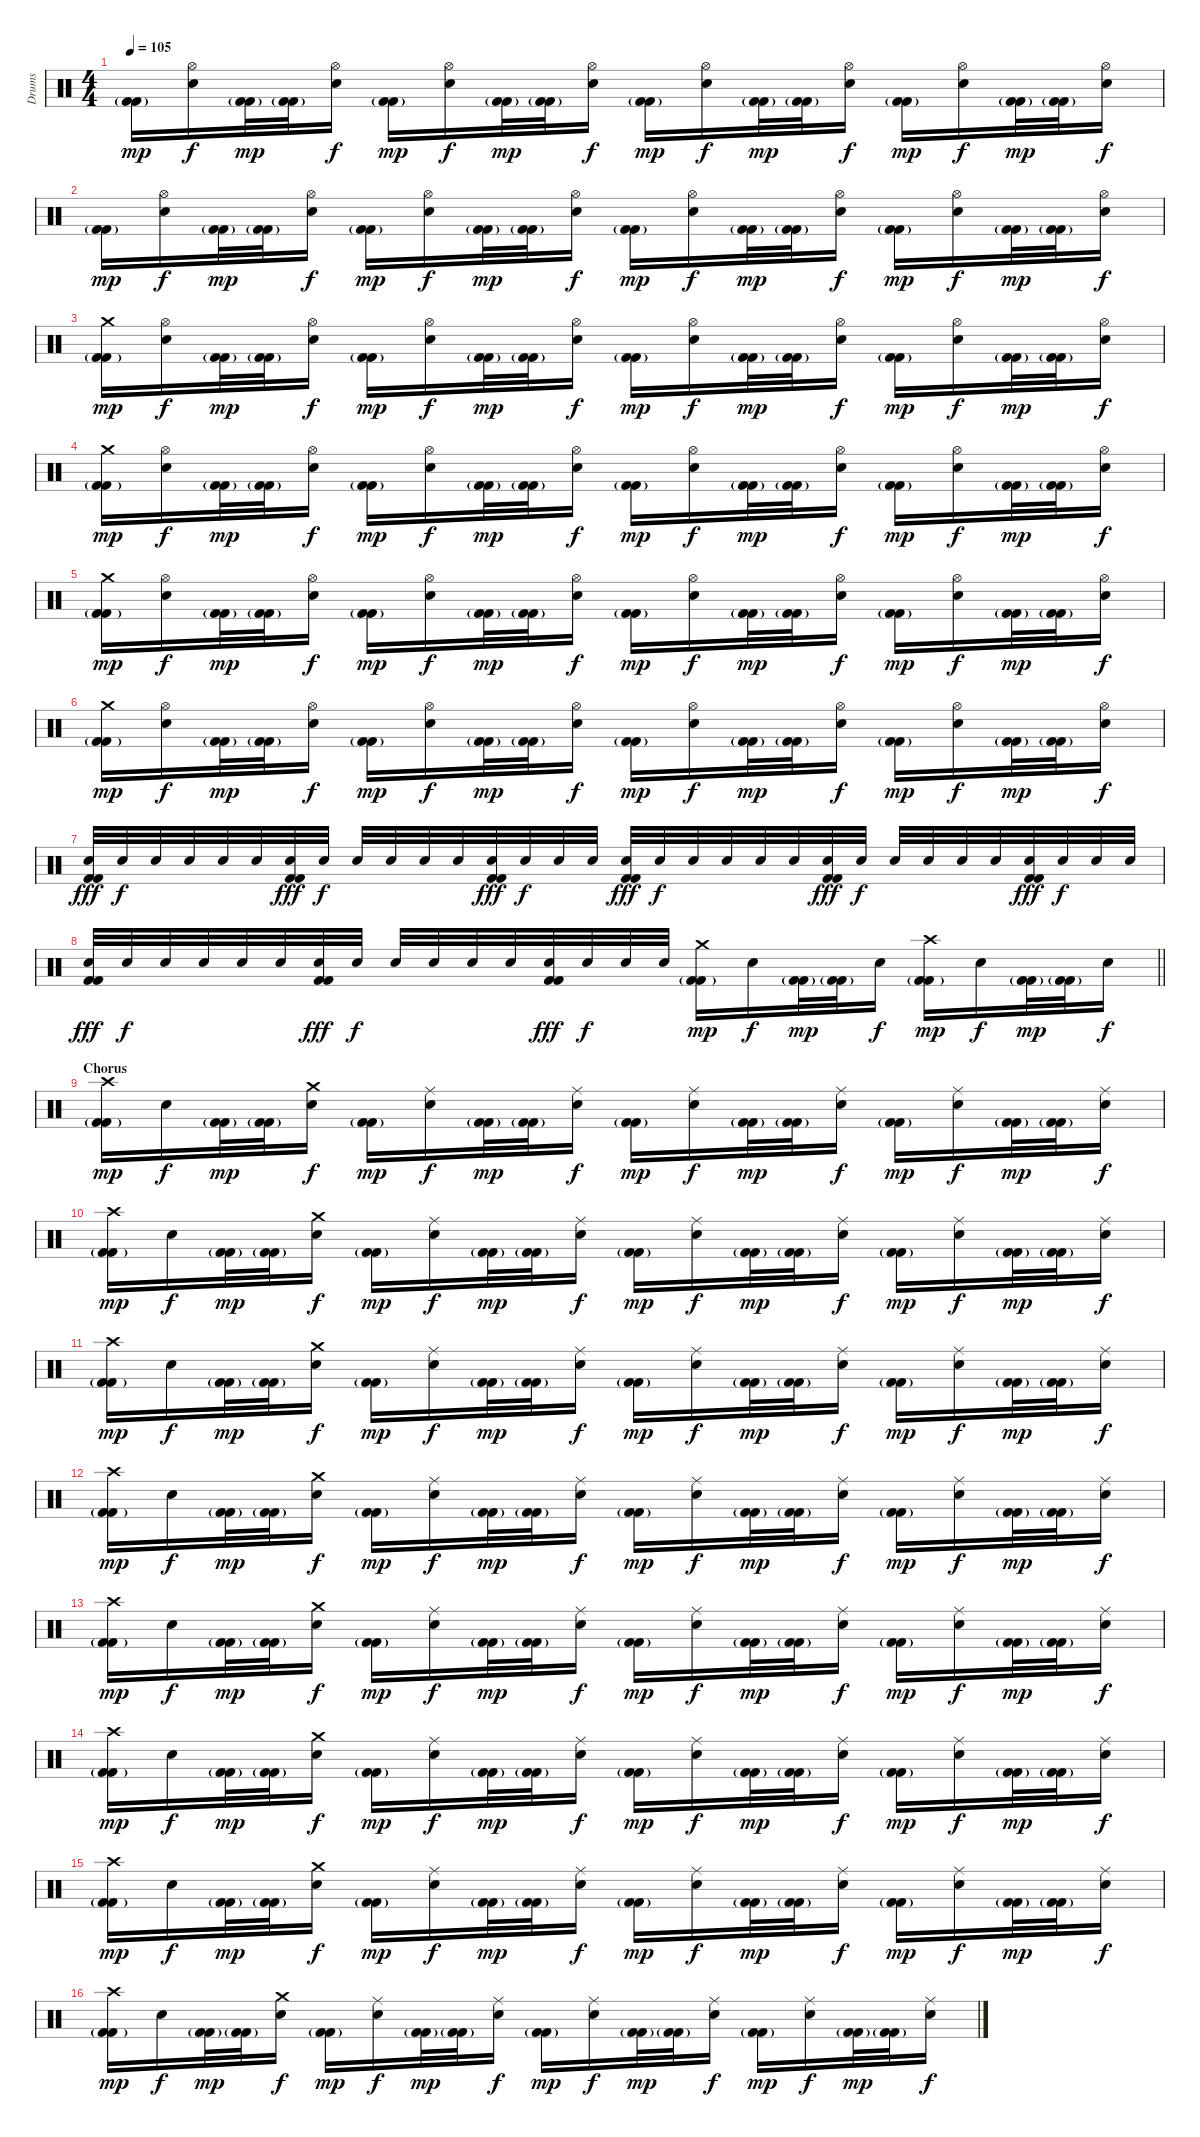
\track ("Drums" "Drums") {instrument percussion}
\staff {score}
\articulation defaults
\ts (4 4)
\tempo 105
\clef neutral
\ks c
("Kick (hit) 2"{g} "Kick (hit) 2").16{dy mp} ("Hi-Hat (open)" "Electric Snare (hit)").16{dy f} ("Kick (hit) 2"{g} "Kick (hit) 2").32{dy mp} ("Kick (hit) 2"{g} "Kick (hit) 2").32 ("Hi-Hat (open)" "Electric Snare (hit)").16{dy f} ("Kick (hit) 2"{g} "Kick (hit) 2").16{dy mp} ("Hi-Hat (open)" "Electric Snare (hit)").16{dy f} ("Kick (hit) 2"{g} "Kick (hit) 2").32{dy mp} ("Kick (hit) 2"{g} "Kick (hit) 2").32 ("Hi-Hat (open)" "Electric Snare (hit)").16{dy f} ("Kick (hit) 2"{g} "Kick (hit) 2").16{dy mp} ("Hi-Hat (open)" "Electric Snare (hit)").16{dy f} ("Kick (hit) 2"{g} "Kick (hit) 2").32{dy mp} ("Kick (hit) 2"{g} "Kick (hit) 2").32 ("Hi-Hat (open)" "Electric Snare (hit)").16{dy f} ("Kick (hit) 2"{g} "Kick (hit) 2").16{dy mp} ("Hi-Hat (open)" "Electric Snare (hit)").16{dy f} ("Kick (hit) 2"{g} "Kick (hit) 2").32{dy mp} ("Kick (hit) 2"{g} "Kick (hit) 2").32 ("Hi-Hat (open)" "Electric Snare (hit)").16{dy f} |
("Kick (hit) 2"{g} "Kick (hit) 2").16{dy mp} ("Hi-Hat (open)" "Electric Snare (hit)").16{dy f} ("Kick (hit) 2"{g} "Kick (hit) 2").32{dy mp} ("Kick (hit) 2"{g} "Kick (hit) 2").32 ("Hi-Hat (open)" "Electric Snare (hit)").16{dy f} ("Kick (hit) 2"{g} "Kick (hit) 2").16{dy mp} ("Hi-Hat (open)" "Electric Snare (hit)").16{dy f} ("Kick (hit) 2"{g} "Kick (hit) 2").32{dy mp} ("Kick (hit) 2"{g} "Kick (hit) 2").32 ("Hi-Hat (open)" "Electric Snare (hit)").16{dy f} ("Kick (hit) 2"{g} "Kick (hit) 2").16{dy mp} ("Hi-Hat (open)" "Electric Snare (hit)").16{dy f} ("Kick (hit) 2"{g} "Kick (hit) 2").32{dy mp} ("Kick (hit) 2"{g} "Kick (hit) 2").32 ("Hi-Hat (open)" "Electric Snare (hit)").16{dy f} ("Kick (hit) 2"{g} "Kick (hit) 2").16{dy mp} ("Hi-Hat (open)" "Electric Snare (hit)").16{dy f} ("Kick (hit) 2"{g} "Kick (hit) 2").32{dy mp} ("Kick (hit) 2"{g} "Kick (hit) 2").32 ("Hi-Hat (open)" "Electric Snare (hit)").16{dy f} |
("Crash medium (hit)" "Kick (hit) 2"{g} "Kick (hit) 2").16{dy mp} ("Hi-Hat (open)" "Electric Snare (hit)").16{dy f} ("Kick (hit) 2"{g} "Kick (hit) 2").32{dy mp} ("Kick (hit) 2"{g} "Kick (hit) 2").32 ("Hi-Hat (open)" "Electric Snare (hit)").16{dy f} ("Kick (hit) 2"{g} "Kick (hit) 2").16{dy mp} ("Hi-Hat (open)" "Electric Snare (hit)").16{dy f} ("Kick (hit) 2"{g} "Kick (hit) 2").32{dy mp} ("Kick (hit) 2"{g} "Kick (hit) 2").32 ("Hi-Hat (open)" "Electric Snare (hit)").16{dy f} ("Kick (hit) 2"{g} "Kick (hit) 2").16{dy mp} ("Hi-Hat (open)" "Electric Snare (hit)").16{dy f} ("Kick (hit) 2"{g} "Kick (hit) 2").32{dy mp} ("Kick (hit) 2"{g} "Kick (hit) 2").32 ("Hi-Hat (open)" "Electric Snare (hit)").16{dy f} ("Kick (hit) 2"{g} "Kick (hit) 2").16{dy mp} ("Hi-Hat (open)" "Electric Snare (hit)").16{dy f} ("Kick (hit) 2"{g} "Kick (hit) 2").32{dy mp} ("Kick (hit) 2"{g} "Kick (hit) 2").32 ("Hi-Hat (open)" "Electric Snare (hit)").16{dy f} |
("Crash medium (hit)" "Kick (hit) 2"{g} "Kick (hit) 2").16{dy mp} ("Hi-Hat (open)" "Electric Snare (hit)").16{dy f} ("Kick (hit) 2"{g} "Kick (hit) 2").32{dy mp} ("Kick (hit) 2"{g} "Kick (hit) 2").32 ("Hi-Hat (open)" "Electric Snare (hit)").16{dy f} ("Kick (hit) 2"{g} "Kick (hit) 2").16{dy mp} ("Hi-Hat (open)" "Electric Snare (hit)").16{dy f} ("Kick (hit) 2"{g} "Kick (hit) 2").32{dy mp} ("Kick (hit) 2"{g} "Kick (hit) 2").32 ("Hi-Hat (open)" "Electric Snare (hit)").16{dy f} ("Kick (hit) 2"{g} "Kick (hit) 2").16{dy mp} ("Hi-Hat (open)" "Electric Snare (hit)").16{dy f} ("Kick (hit) 2"{g} "Kick (hit) 2").32{dy mp} ("Kick (hit) 2"{g} "Kick (hit) 2").32 ("Hi-Hat (open)" "Electric Snare (hit)").16{dy f} ("Kick (hit) 2"{g} "Kick (hit) 2").16{dy mp} ("Hi-Hat (open)" "Electric Snare (hit)").16{dy f} ("Kick (hit) 2"{g} "Kick (hit) 2").32{dy mp} ("Kick (hit) 2"{g} "Kick (hit) 2").32 ("Hi-Hat (open)" "Electric Snare (hit)").16{dy f} |
("Crash medium (hit)" "Kick (hit) 2"{g} "Kick (hit) 2").16{dy mp} ("Hi-Hat (open)" "Electric Snare (hit)").16{dy f} ("Kick (hit) 2"{g} "Kick (hit) 2").32{dy mp} ("Kick (hit) 2"{g} "Kick (hit) 2").32 ("Hi-Hat (open)" "Electric Snare (hit)").16{dy f} ("Kick (hit) 2"{g} "Kick (hit) 2").16{dy mp} ("Hi-Hat (open)" "Electric Snare (hit)").16{dy f} ("Kick (hit) 2"{g} "Kick (hit) 2").32{dy mp} ("Kick (hit) 2"{g} "Kick (hit) 2").32 ("Hi-Hat (open)" "Electric Snare (hit)").16{dy f} ("Kick (hit) 2"{g} "Kick (hit) 2").16{dy mp} ("Hi-Hat (open)" "Electric Snare (hit)").16{dy f} ("Kick (hit) 2"{g} "Kick (hit) 2").32{dy mp} ("Kick (hit) 2"{g} "Kick (hit) 2").32 ("Hi-Hat (open)" "Electric Snare (hit)").16{dy f} ("Kick (hit) 2"{g} "Kick (hit) 2").16{dy mp} ("Hi-Hat (open)" "Electric Snare (hit)").16{dy f} ("Kick (hit) 2"{g} "Kick (hit) 2").32{dy mp} ("Kick (hit) 2"{g} "Kick (hit) 2").32 ("Hi-Hat (open)" "Electric Snare (hit)").16{dy f} |
("Crash medium (hit)" "Kick (hit) 2"{g} "Kick (hit) 2").16{dy mp} ("Hi-Hat (open)" "Electric Snare (hit)").16{dy f} ("Kick (hit) 2"{g} "Kick (hit) 2").32{dy mp} ("Kick (hit) 2"{g} "Kick (hit) 2").32 ("Hi-Hat (open)" "Electric Snare (hit)").16{dy f} ("Kick (hit) 2"{g} "Kick (hit) 2").16{dy mp} ("Hi-Hat (open)" "Electric Snare (hit)").16{dy f} ("Kick (hit) 2"{g} "Kick (hit) 2").32{dy mp} ("Kick (hit) 2"{g} "Kick (hit) 2").32 ("Hi-Hat (open)" "Electric Snare (hit)").16{dy f} ("Kick (hit) 2"{g} "Kick (hit) 2").16{dy mp} ("Hi-Hat (open)" "Electric Snare (hit)").16{dy f} ("Kick (hit) 2"{g} "Kick (hit) 2").32{dy mp} ("Kick (hit) 2"{g} "Kick (hit) 2").32 ("Hi-Hat (open)" "Electric Snare (hit)").16{dy f} ("Kick (hit) 2"{g} "Kick (hit) 2").16{dy mp} ("Hi-Hat (open)" "Electric Snare (hit)").16{dy f} ("Kick (hit) 2"{g} "Kick (hit) 2").32{dy mp} ("Kick (hit) 2"{g} "Kick (hit) 2").32 ("Hi-Hat (open)" "Electric Snare (hit)").16{dy f} |
("Electric Snare (hit)" "Kick (hit) 2" "Kick (hit) 2").32{dy fff} "Electric Snare (hit)".32{dy f} "Electric Snare (hit)".32 "Electric Snare (hit)".32 "Electric Snare (hit)".32 "Electric Snare (hit)".32 ("Electric Snare (hit)" "Kick (hit) 2" "Kick (hit) 2").32{dy fff} "Electric Snare (hit)".32{dy f} "Electric Snare (hit)".32 "Electric Snare (hit)".32 "Electric Snare (hit)".32 "Electric Snare (hit)".32 ("Electric Snare (hit)" "Kick (hit) 2" "Kick (hit) 2").32{dy fff} "Electric Snare (hit)".32{dy f} "Electric Snare (hit)".32 "Electric Snare (hit)".32 ("Electric Snare (hit)" "Kick (hit) 2" "Kick (hit) 2").32{dy fff} "Electric Snare (hit)".32{dy f} "Electric Snare (hit)".32 "Electric Snare (hit)".32 "Electric Snare (hit)".32 "Electric Snare (hit)".32 ("Electric Snare (hit)" "Kick (hit) 2" "Kick (hit) 2").32{dy fff} "Electric Snare (hit)".32{dy f} "Electric Snare (hit)".32 "Electric Snare (hit)".32 "Electric Snare (hit)".32 "Electric Snare (hit)".32 ("Electric Snare (hit)" "Kick (hit) 2" "Kick (hit) 2").32{dy fff} "Electric Snare (hit)".32{dy f} "Electric Snare (hit)".32 "Electric Snare (hit)".32 |
\barLineRight lightlight
("Electric Snare (hit)" "Kick (hit) 2" "Kick (hit) 2").32{dy fff} "Electric Snare (hit)".32{dy f} "Electric Snare (hit)".32 "Electric Snare (hit)".32 "Electric Snare (hit)".32 "Electric Snare (hit)".32 ("Electric Snare (hit)" "Kick (hit) 2" "Kick (hit) 2").32{dy fff} "Electric Snare (hit)".32{dy f} "Electric Snare (hit)".32 "Electric Snare (hit)".32 "Electric Snare (hit)".32 "Electric Snare (hit)".32 ("Electric Snare (hit)" "Kick (hit) 2" "Kick (hit) 2").32{dy fff} "Electric Snare (hit)".32{dy f} "Electric Snare (hit)".32 "Electric Snare (hit)".32 ("Crash medium (hit)" "Kick (hit) 2"{g} "Kick (hit) 2").16{dy mp} "Electric Snare (hit)".16{dy f} ("Kick (hit) 2"{g} "Kick (hit) 2").32{dy mp} ("Kick (hit) 2"{g} "Kick (hit) 2").32 "Electric Snare (hit)".16{dy f} ("Crash high (hit)" "Kick (hit) 2"{g} "Kick (hit) 2").16{dy mp} "Electric Snare (hit)".16{dy f} ("Kick (hit) 2"{g} "Kick (hit) 2").32{dy mp} ("Kick (hit) 2"{g} "Kick (hit) 2").32 "Electric Snare (hit)".16{dy f} |
\section ("" "Chorus")
("Crash high (hit)" "Kick (hit) 2"{g} "Kick (hit) 2").16{dy mp} "Electric Snare (hit)".16{dy f} ("Kick (hit) 2"{g} "Kick (hit) 2").32{dy mp} ("Kick (hit) 2"{g} "Kick (hit) 2").32 ("Crash medium (hit)" "Electric Snare (hit)").16{dy f} ("Kick (hit) 2"{g} "Kick (hit) 2").16{dy mp} ("Ride (middle)" "Electric Snare (hit)").16{dy f} ("Kick (hit) 2"{g} "Kick (hit) 2").32{dy mp} ("Kick (hit) 2"{g} "Kick (hit) 2").32 ("Ride (middle)" "Electric Snare (hit)").16{dy f} ("Kick (hit) 2"{g} "Kick (hit) 2").16{dy mp} ("Ride (middle)" "Electric Snare (hit)").16{dy f} ("Kick (hit) 2"{g} "Kick (hit) 2").32{dy mp} ("Kick (hit) 2"{g} "Kick (hit) 2").32 ("Ride (middle)" "Electric Snare (hit)").16{dy f} ("Kick (hit) 2"{g} "Kick (hit) 2").16{dy mp} ("Ride (middle)" "Electric Snare (hit)").16{dy f} ("Kick (hit) 2"{g} "Kick (hit) 2").32{dy mp} ("Kick (hit) 2"{g} "Kick (hit) 2").32 ("Ride (middle)" "Electric Snare (hit)").16{dy f} |
("Crash high (hit)" "Kick (hit) 2"{g} "Kick (hit) 2").16{dy mp} "Electric Snare (hit)".16{dy f} ("Kick (hit) 2"{g} "Kick (hit) 2").32{dy mp} ("Kick (hit) 2"{g} "Kick (hit) 2").32 ("Crash medium (hit)" "Electric Snare (hit)").16{dy f} ("Kick (hit) 2"{g} "Kick (hit) 2").16{dy mp} ("Ride (middle)" "Electric Snare (hit)").16{dy f} ("Kick (hit) 2"{g} "Kick (hit) 2").32{dy mp} ("Kick (hit) 2"{g} "Kick (hit) 2").32 ("Ride (middle)" "Electric Snare (hit)").16{dy f} ("Kick (hit) 2"{g} "Kick (hit) 2").16{dy mp} ("Ride (middle)" "Electric Snare (hit)").16{dy f} ("Kick (hit) 2"{g} "Kick (hit) 2").32{dy mp} ("Kick (hit) 2"{g} "Kick (hit) 2").32 ("Ride (middle)" "Electric Snare (hit)").16{dy f} ("Kick (hit) 2"{g} "Kick (hit) 2").16{dy mp} ("Ride (middle)" "Electric Snare (hit)").16{dy f} ("Kick (hit) 2"{g} "Kick (hit) 2").32{dy mp} ("Kick (hit) 2"{g} "Kick (hit) 2").32 ("Ride (middle)" "Electric Snare (hit)").16{dy f} |
("Crash high (hit)" "Kick (hit) 2"{g} "Kick (hit) 2").16{dy mp} "Electric Snare (hit)".16{dy f} ("Kick (hit) 2"{g} "Kick (hit) 2").32{dy mp} ("Kick (hit) 2"{g} "Kick (hit) 2").32 ("Crash medium (hit)" "Electric Snare (hit)").16{dy f} ("Kick (hit) 2"{g} "Kick (hit) 2").16{dy mp} ("Ride (middle)" "Electric Snare (hit)").16{dy f} ("Kick (hit) 2"{g} "Kick (hit) 2").32{dy mp} ("Kick (hit) 2"{g} "Kick (hit) 2").32 ("Ride (middle)" "Electric Snare (hit)").16{dy f} ("Kick (hit) 2"{g} "Kick (hit) 2").16{dy mp} ("Ride (middle)" "Electric Snare (hit)").16{dy f} ("Kick (hit) 2"{g} "Kick (hit) 2").32{dy mp} ("Kick (hit) 2"{g} "Kick (hit) 2").32 ("Ride (middle)" "Electric Snare (hit)").16{dy f} ("Kick (hit) 2"{g} "Kick (hit) 2").16{dy mp} ("Ride (middle)" "Electric Snare (hit)").16{dy f} ("Kick (hit) 2"{g} "Kick (hit) 2").32{dy mp} ("Kick (hit) 2"{g} "Kick (hit) 2").32 ("Ride (middle)" "Electric Snare (hit)").16{dy f} |
("Crash high (hit)" "Kick (hit) 2"{g} "Kick (hit) 2").16{dy mp} "Electric Snare (hit)".16{dy f} ("Kick (hit) 2"{g} "Kick (hit) 2").32{dy mp} ("Kick (hit) 2"{g} "Kick (hit) 2").32 ("Crash medium (hit)" "Electric Snare (hit)").16{dy f} ("Kick (hit) 2"{g} "Kick (hit) 2").16{dy mp} ("Ride (middle)" "Electric Snare (hit)").16{dy f} ("Kick (hit) 2"{g} "Kick (hit) 2").32{dy mp} ("Kick (hit) 2"{g} "Kick (hit) 2").32 ("Ride (middle)" "Electric Snare (hit)").16{dy f} ("Kick (hit) 2"{g} "Kick (hit) 2").16{dy mp} ("Ride (middle)" "Electric Snare (hit)").16{dy f} ("Kick (hit) 2"{g} "Kick (hit) 2").32{dy mp} ("Kick (hit) 2"{g} "Kick (hit) 2").32 ("Ride (middle)" "Electric Snare (hit)").16{dy f} ("Kick (hit) 2"{g} "Kick (hit) 2").16{dy mp} ("Ride (middle)" "Electric Snare (hit)").16{dy f} ("Kick (hit) 2"{g} "Kick (hit) 2").32{dy mp} ("Kick (hit) 2"{g} "Kick (hit) 2").32 ("Ride (middle)" "Electric Snare (hit)").16{dy f} |
("Crash high (hit)" "Kick (hit) 2"{g} "Kick (hit) 2").16{dy mp} "Electric Snare (hit)".16{dy f} ("Kick (hit) 2"{g} "Kick (hit) 2").32{dy mp} ("Kick (hit) 2"{g} "Kick (hit) 2").32 ("Crash medium (hit)" "Electric Snare (hit)").16{dy f} ("Kick (hit) 2"{g} "Kick (hit) 2").16{dy mp} ("Ride (middle)" "Electric Snare (hit)").16{dy f} ("Kick (hit) 2"{g} "Kick (hit) 2").32{dy mp} ("Kick (hit) 2"{g} "Kick (hit) 2").32 ("Ride (middle)" "Electric Snare (hit)").16{dy f} ("Kick (hit) 2"{g} "Kick (hit) 2").16{dy mp} ("Ride (middle)" "Electric Snare (hit)").16{dy f} ("Kick (hit) 2"{g} "Kick (hit) 2").32{dy mp} ("Kick (hit) 2"{g} "Kick (hit) 2").32 ("Ride (middle)" "Electric Snare (hit)").16{dy f} ("Kick (hit) 2"{g} "Kick (hit) 2").16{dy mp} ("Ride (middle)" "Electric Snare (hit)").16{dy f} ("Kick (hit) 2"{g} "Kick (hit) 2").32{dy mp} ("Kick (hit) 2"{g} "Kick (hit) 2").32 ("Ride (middle)" "Electric Snare (hit)").16{dy f} |
("Crash high (hit)" "Kick (hit) 2"{g} "Kick (hit) 2").16{dy mp} "Electric Snare (hit)".16{dy f} ("Kick (hit) 2"{g} "Kick (hit) 2").32{dy mp} ("Kick (hit) 2"{g} "Kick (hit) 2").32 ("Crash medium (hit)" "Electric Snare (hit)").16{dy f} ("Kick (hit) 2"{g} "Kick (hit) 2").16{dy mp} ("Ride (middle)" "Electric Snare (hit)").16{dy f} ("Kick (hit) 2"{g} "Kick (hit) 2").32{dy mp} ("Kick (hit) 2"{g} "Kick (hit) 2").32 ("Ride (middle)" "Electric Snare (hit)").16{dy f} ("Kick (hit) 2"{g} "Kick (hit) 2").16{dy mp} ("Ride (middle)" "Electric Snare (hit)").16{dy f} ("Kick (hit) 2"{g} "Kick (hit) 2").32{dy mp} ("Kick (hit) 2"{g} "Kick (hit) 2").32 ("Ride (middle)" "Electric Snare (hit)").16{dy f} ("Kick (hit) 2"{g} "Kick (hit) 2").16{dy mp} ("Ride (middle)" "Electric Snare (hit)").16{dy f} ("Kick (hit) 2"{g} "Kick (hit) 2").32{dy mp} ("Kick (hit) 2"{g} "Kick (hit) 2").32 ("Ride (middle)" "Electric Snare (hit)").16{dy f} |
("Crash high (hit)" "Kick (hit) 2"{g} "Kick (hit) 2").16{dy mp} "Electric Snare (hit)".16{dy f} ("Kick (hit) 2"{g} "Kick (hit) 2").32{dy mp} ("Kick (hit) 2"{g} "Kick (hit) 2").32 ("Crash medium (hit)" "Electric Snare (hit)").16{dy f} ("Kick (hit) 2"{g} "Kick (hit) 2").16{dy mp} ("Ride (middle)" "Electric Snare (hit)").16{dy f} ("Kick (hit) 2"{g} "Kick (hit) 2").32{dy mp} ("Kick (hit) 2"{g} "Kick (hit) 2").32 ("Ride (middle)" "Electric Snare (hit)").16{dy f} ("Kick (hit) 2"{g} "Kick (hit) 2").16{dy mp} ("Ride (middle)" "Electric Snare (hit)").16{dy f} ("Kick (hit) 2"{g} "Kick (hit) 2").32{dy mp} ("Kick (hit) 2"{g} "Kick (hit) 2").32 ("Ride (middle)" "Electric Snare (hit)").16{dy f} ("Kick (hit) 2"{g} "Kick (hit) 2").16{dy mp} ("Ride (middle)" "Electric Snare (hit)").16{dy f} ("Kick (hit) 2"{g} "Kick (hit) 2").32{dy mp} ("Kick (hit) 2"{g} "Kick (hit) 2").32 ("Ride (middle)" "Electric Snare (hit)").16{dy f} |
("Crash high (hit)" "Kick (hit) 2"{g} "Kick (hit) 2").16{dy mp} "Electric Snare (hit)".16{dy f} ("Kick (hit) 2"{g} "Kick (hit) 2").32{dy mp} ("Kick (hit) 2"{g} "Kick (hit) 2").32 ("Crash medium (hit)" "Electric Snare (hit)").16{dy f} ("Kick (hit) 2"{g} "Kick (hit) 2").16{dy mp} ("Ride (middle)" "Electric Snare (hit)").16{dy f} ("Kick (hit) 2"{g} "Kick (hit) 2").32{dy mp} ("Kick (hit) 2"{g} "Kick (hit) 2").32 ("Ride (middle)" "Electric Snare (hit)").16{dy f} ("Kick (hit) 2"{g} "Kick (hit) 2").16{dy mp} ("Ride (middle)" "Electric Snare (hit)").16{dy f} ("Kick (hit) 2"{g} "Kick (hit) 2").32{dy mp} ("Kick (hit) 2"{g} "Kick (hit) 2").32 ("Ride (middle)" "Electric Snare (hit)").16{dy f} ("Kick (hit) 2"{g} "Kick (hit) 2").16{dy mp} ("Ride (middle)" "Electric Snare (hit)").16{dy f} ("Kick (hit) 2"{g} "Kick (hit) 2").32{dy mp} ("Kick (hit) 2"{g} "Kick (hit) 2").32 ("Ride (middle)" "Electric Snare (hit)").16{dy f}
